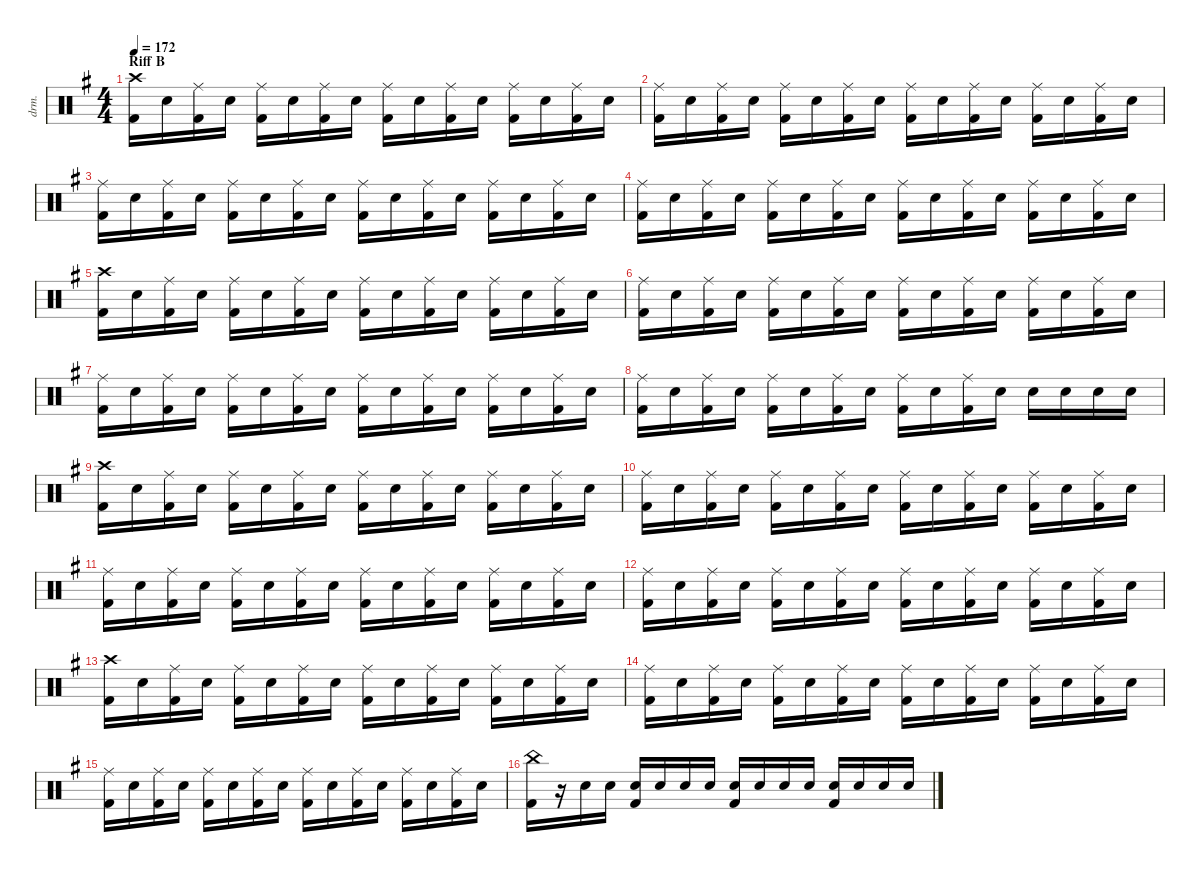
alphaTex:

\defaultSystemsLayout 4
\hideDynamics
\bracketExtendMode nobrackets
\otherSystemsTrackNameOrientation horizontal
\track ("Shinya" "drm.") {instrument percussion}
\staff {score}
\articulation defaults
\ts (4 4)
\section ("" "Riff B")
\tempo 172
\clef neutral
\ks eminor
("Kick (hit) 2"{acc forcenatural} "Crash high (hit)"{acc #}).16{dy fff} "Snare (hit) 2"{acc forcenatural}.16 ("Kick (hit) 2"{acc forcenatural} "Ride (middle)"{acc #}).16 "Snare (hit) 2"{acc forcenatural}.16 ("Kick (hit) 2"{acc forcenatural} "Ride (middle)"{acc #}).16 "Snare (hit) 2"{acc forcenatural}.16 ("Kick (hit) 2"{acc forcenatural} "Ride (middle)"{acc #}).16 "Snare (hit) 2"{acc forcenatural}.16 ("Kick (hit) 2"{acc forcenatural} "Ride (middle)"{acc #}).16 "Snare (hit) 2"{acc forcenatural}.16 ("Kick (hit) 2"{acc forcenatural} "Ride (middle)"{acc #}).16 "Snare (hit) 2"{acc forcenatural}.16 ("Kick (hit) 2"{acc forcenatural} "Ride (middle)"{acc #}).16 "Snare (hit) 2"{acc forcenatural}.16 ("Kick (hit) 2"{acc forcenatural} "Ride (middle)"{acc #}).16 "Snare (hit) 2"{acc forcenatural}.16 |
("Kick (hit) 2"{acc forcenatural} "Ride (middle)"{acc #}).16 "Snare (hit) 2"{acc forcenatural}.16 ("Kick (hit) 2"{acc forcenatural} "Ride (middle)"{acc #}).16 "Snare (hit) 2"{acc forcenatural}.16 ("Kick (hit) 2"{acc forcenatural} "Ride (middle)"{acc #}).16 "Snare (hit) 2"{acc forcenatural}.16 ("Kick (hit) 2"{acc forcenatural} "Ride (middle)"{acc #}).16 "Snare (hit) 2"{acc forcenatural}.16 ("Kick (hit) 2"{acc forcenatural} "Ride (middle)"{acc #}).16 "Snare (hit) 2"{acc forcenatural}.16 ("Kick (hit) 2"{acc forcenatural} "Ride (middle)"{acc #}).16 "Snare (hit) 2"{acc forcenatural}.16 ("Kick (hit) 2"{acc forcenatural} "Ride (middle)"{acc #}).16 "Snare (hit) 2"{acc forcenatural}.16 ("Kick (hit) 2"{acc forcenatural} "Ride (middle)"{acc #}).16 "Snare (hit) 2"{acc forcenatural}.16 |
("Kick (hit) 2"{acc forcenatural} "Ride (middle)"{acc #}).16 "Snare (hit) 2"{acc forcenatural}.16 ("Kick (hit) 2"{acc forcenatural} "Ride (middle)"{acc #}).16 "Snare (hit) 2"{acc forcenatural}.16 ("Kick (hit) 2"{acc forcenatural} "Ride (middle)"{acc #}).16 "Snare (hit) 2"{acc forcenatural}.16 ("Kick (hit) 2"{acc forcenatural} "Ride (middle)"{acc #}).16 "Snare (hit) 2"{acc forcenatural}.16 ("Kick (hit) 2"{acc forcenatural} "Ride (middle)"{acc #}).16 "Snare (hit) 2"{acc forcenatural}.16 ("Kick (hit) 2"{acc forcenatural} "Ride (middle)"{acc #}).16 "Snare (hit) 2"{acc forcenatural}.16 ("Kick (hit) 2"{acc forcenatural} "Ride (middle)"{acc #}).16 "Snare (hit) 2"{acc forcenatural}.16 ("Kick (hit) 2"{acc forcenatural} "Ride (middle)"{acc #}).16 "Snare (hit) 2"{acc forcenatural}.16 |
("Kick (hit) 2"{acc forcenatural} "Ride (middle)"{acc #}).16 "Snare (hit) 2"{acc forcenatural}.16 ("Kick (hit) 2"{acc forcenatural} "Ride (middle)"{acc #}).16 "Snare (hit) 2"{acc forcenatural}.16 ("Kick (hit) 2"{acc forcenatural} "Ride (middle)"{acc #}).16 "Snare (hit) 2"{acc forcenatural}.16 ("Kick (hit) 2"{acc forcenatural} "Ride (middle)"{acc #}).16 "Snare (hit) 2"{acc forcenatural}.16 ("Kick (hit) 2"{acc forcenatural} "Ride (middle)"{acc #}).16 "Snare (hit) 2"{acc forcenatural}.16 ("Kick (hit) 2"{acc forcenatural} "Ride (middle)"{acc #}).16 "Snare (hit) 2"{acc forcenatural}.16 ("Kick (hit) 2"{acc forcenatural} "Ride (middle)"{acc #}).16 "Snare (hit) 2"{acc forcenatural}.16 ("Kick (hit) 2"{acc forcenatural} "Ride (middle)"{acc #}).16 "Snare (hit) 2"{acc forcenatural}.16 |
("Kick (hit) 2"{acc forcenatural} "Crash high (hit)"{acc #}).16 "Snare (hit) 2"{acc forcenatural}.16 ("Kick (hit) 2"{acc forcenatural} "Ride (middle)"{acc #}).16 "Snare (hit) 2"{acc forcenatural}.16 ("Kick (hit) 2"{acc forcenatural} "Ride (middle)"{acc #}).16 "Snare (hit) 2"{acc forcenatural}.16 ("Kick (hit) 2"{acc forcenatural} "Ride (middle)"{acc #}).16 "Snare (hit) 2"{acc forcenatural}.16 ("Kick (hit) 2"{acc forcenatural} "Ride (middle)"{acc #}).16 "Snare (hit) 2"{acc forcenatural}.16 ("Kick (hit) 2"{acc forcenatural} "Ride (middle)"{acc #}).16 "Snare (hit) 2"{acc forcenatural}.16 ("Kick (hit) 2"{acc forcenatural} "Ride (middle)"{acc #}).16 "Snare (hit) 2"{acc forcenatural}.16 ("Kick (hit) 2"{acc forcenatural} "Ride (middle)"{acc #}).16 "Snare (hit) 2"{acc forcenatural}.16 |
("Kick (hit) 2"{acc forcenatural} "Ride (middle)"{acc #}).16 "Snare (hit) 2"{acc forcenatural}.16 ("Kick (hit) 2"{acc forcenatural} "Ride (middle)"{acc #}).16 "Snare (hit) 2"{acc forcenatural}.16 ("Kick (hit) 2"{acc forcenatural} "Ride (middle)"{acc #}).16 "Snare (hit) 2"{acc forcenatural}.16 ("Kick (hit) 2"{acc forcenatural} "Ride (middle)"{acc #}).16 "Snare (hit) 2"{acc forcenatural}.16 ("Kick (hit) 2"{acc forcenatural} "Ride (middle)"{acc #}).16 "Snare (hit) 2"{acc forcenatural}.16 ("Kick (hit) 2"{acc forcenatural} "Ride (middle)"{acc #}).16 "Snare (hit) 2"{acc forcenatural}.16 ("Kick (hit) 2"{acc forcenatural} "Ride (middle)"{acc #}).16 "Snare (hit) 2"{acc forcenatural}.16 ("Kick (hit) 2"{acc forcenatural} "Ride (middle)"{acc #}).16 "Snare (hit) 2"{acc forcenatural}.16 |
("Kick (hit) 2"{acc forcenatural} "Ride (middle)"{acc #}).16 "Snare (hit) 2"{acc forcenatural}.16 ("Kick (hit) 2"{acc forcenatural} "Ride (middle)"{acc #}).16 "Snare (hit) 2"{acc forcenatural}.16 ("Kick (hit) 2"{acc forcenatural} "Ride (middle)"{acc #}).16 "Snare (hit) 2"{acc forcenatural}.16 ("Kick (hit) 2"{acc forcenatural} "Ride (middle)"{acc #}).16 "Snare (hit) 2"{acc forcenatural}.16 ("Kick (hit) 2"{acc forcenatural} "Ride (middle)"{acc #}).16 "Snare (hit) 2"{acc forcenatural}.16 ("Kick (hit) 2"{acc forcenatural} "Ride (middle)"{acc #}).16 "Snare (hit) 2"{acc forcenatural}.16 ("Kick (hit) 2"{acc forcenatural} "Ride (middle)"{acc #}).16 "Snare (hit) 2"{acc forcenatural}.16 ("Kick (hit) 2"{acc forcenatural} "Ride (middle)"{acc #}).16 "Snare (hit) 2"{acc forcenatural}.16 |
("Kick (hit) 2"{acc forcenatural} "Ride (middle)"{acc #}).16 "Snare (hit) 2"{acc forcenatural}.16 ("Kick (hit) 2"{acc forcenatural} "Ride (middle)"{acc #}).16 "Snare (hit) 2"{acc forcenatural}.16 ("Kick (hit) 2"{acc forcenatural} "Ride (middle)"{acc #}).16 "Snare (hit) 2"{acc forcenatural}.16 ("Kick (hit) 2"{acc forcenatural} "Ride (middle)"{acc #}).16 "Snare (hit) 2"{acc forcenatural}.16 ("Kick (hit) 2"{acc forcenatural} "Ride (middle)"{acc #}).16 "Snare (hit) 2"{acc forcenatural}.16 ("Kick (hit) 2"{acc forcenatural} "Ride (middle)"{acc #}).16 "Snare (hit) 2"{acc forcenatural}.16 "Snare (hit) 2"{acc forcenatural}.16 "Snare (hit) 2"{acc forcenatural}.16 "Snare (hit) 2"{acc forcenatural}.16 "Snare (hit) 2"{acc forcenatural}.16 |
("Kick (hit) 2"{acc forcenatural} "Crash high (hit)"{acc #}).16 "Snare (hit) 2"{acc forcenatural}.16 ("Kick (hit) 2"{acc forcenatural} "Ride (middle)"{acc #}).16 "Snare (hit) 2"{acc forcenatural}.16 ("Kick (hit) 2"{acc forcenatural} "Ride (middle)"{acc #}).16 "Snare (hit) 2"{acc forcenatural}.16 ("Kick (hit) 2"{acc forcenatural} "Ride (middle)"{acc #}).16 "Snare (hit) 2"{acc forcenatural}.16 ("Kick (hit) 2"{acc forcenatural} "Ride (middle)"{acc #}).16 "Snare (hit) 2"{acc forcenatural}.16 ("Kick (hit) 2"{acc forcenatural} "Ride (middle)"{acc #}).16 "Snare (hit) 2"{acc forcenatural}.16 ("Kick (hit) 2"{acc forcenatural} "Ride (middle)"{acc #}).16 "Snare (hit) 2"{acc forcenatural}.16 ("Kick (hit) 2"{acc forcenatural} "Ride (middle)"{acc #}).16 "Snare (hit) 2"{acc forcenatural}.16 |
("Kick (hit) 2"{acc forcenatural} "Ride (middle)"{acc #}).16 "Snare (hit) 2"{acc forcenatural}.16 ("Kick (hit) 2"{acc forcenatural} "Ride (middle)"{acc #}).16 "Snare (hit) 2"{acc forcenatural}.16 ("Kick (hit) 2"{acc forcenatural} "Ride (middle)"{acc #}).16 "Snare (hit) 2"{acc forcenatural}.16 ("Kick (hit) 2"{acc forcenatural} "Ride (middle)"{acc #}).16 "Snare (hit) 2"{acc forcenatural}.16 ("Kick (hit) 2"{acc forcenatural} "Ride (middle)"{acc #}).16 "Snare (hit) 2"{acc forcenatural}.16 ("Kick (hit) 2"{acc forcenatural} "Ride (middle)"{acc #}).16 "Snare (hit) 2"{acc forcenatural}.16 ("Kick (hit) 2"{acc forcenatural} "Ride (middle)"{acc #}).16 "Snare (hit) 2"{acc forcenatural}.16 ("Kick (hit) 2"{acc forcenatural} "Ride (middle)"{acc #}).16 "Snare (hit) 2"{acc forcenatural}.16 |
("Kick (hit) 2"{acc forcenatural} "Ride (middle)"{acc #}).16 "Snare (hit) 2"{acc forcenatural}.16 ("Kick (hit) 2"{acc forcenatural} "Ride (middle)"{acc #}).16 "Snare (hit) 2"{acc forcenatural}.16 ("Kick (hit) 2"{acc forcenatural} "Ride (middle)"{acc #}).16 "Snare (hit) 2"{acc forcenatural}.16 ("Kick (hit) 2"{acc forcenatural} "Ride (middle)"{acc #}).16 "Snare (hit) 2"{acc forcenatural}.16 ("Kick (hit) 2"{acc forcenatural} "Ride (middle)"{acc #}).16 "Snare (hit) 2"{acc forcenatural}.16 ("Kick (hit) 2"{acc forcenatural} "Ride (middle)"{acc #}).16 "Snare (hit) 2"{acc forcenatural}.16 ("Kick (hit) 2"{acc forcenatural} "Ride (middle)"{acc #}).16 "Snare (hit) 2"{acc forcenatural}.16 ("Kick (hit) 2"{acc forcenatural} "Ride (middle)"{acc #}).16 "Snare (hit) 2"{acc forcenatural}.16 |
("Kick (hit) 2"{acc forcenatural} "Ride (middle)"{acc #}).16 "Snare (hit) 2"{acc forcenatural}.16 ("Kick (hit) 2"{acc forcenatural} "Ride (middle)"{acc #}).16 "Snare (hit) 2"{acc forcenatural}.16 ("Kick (hit) 2"{acc forcenatural} "Ride (middle)"{acc #}).16 "Snare (hit) 2"{acc forcenatural}.16 ("Kick (hit) 2"{acc forcenatural} "Ride (middle)"{acc #}).16 "Snare (hit) 2"{acc forcenatural}.16 ("Kick (hit) 2"{acc forcenatural} "Ride (middle)"{acc #}).16 "Snare (hit) 2"{acc forcenatural}.16 ("Kick (hit) 2"{acc forcenatural} "Ride (middle)"{acc #}).16 "Snare (hit) 2"{acc forcenatural}.16 ("Kick (hit) 2"{acc forcenatural} "Ride (middle)"{acc #}).16 "Snare (hit) 2"{acc forcenatural}.16 ("Kick (hit) 2"{acc forcenatural} "Ride (middle)"{acc #}).16 "Snare (hit) 2"{acc forcenatural}.16 |
("Kick (hit) 2"{acc forcenatural} "Crash high (hit)"{acc #}).16 "Snare (hit) 2"{acc forcenatural}.16 ("Kick (hit) 2"{acc forcenatural} "Ride (middle)"{acc #}).16 "Snare (hit) 2"{acc forcenatural}.16 ("Kick (hit) 2"{acc forcenatural} "Ride (middle)"{acc #}).16 "Snare (hit) 2"{acc forcenatural}.16 ("Kick (hit) 2"{acc forcenatural} "Ride (middle)"{acc #}).16 "Snare (hit) 2"{acc forcenatural}.16 ("Kick (hit) 2"{acc forcenatural} "Ride (middle)"{acc #}).16 "Snare (hit) 2"{acc forcenatural}.16 ("Kick (hit) 2"{acc forcenatural} "Ride (middle)"{acc #}).16 "Snare (hit) 2"{acc forcenatural}.16 ("Kick (hit) 2"{acc forcenatural} "Ride (middle)"{acc #}).16 "Snare (hit) 2"{acc forcenatural}.16 ("Kick (hit) 2"{acc forcenatural} "Ride (middle)"{acc #}).16 "Snare (hit) 2"{acc forcenatural}.16 |
("Kick (hit) 2"{acc forcenatural} "Ride (middle)"{acc #}).16 "Snare (hit) 2"{acc forcenatural}.16 ("Kick (hit) 2"{acc forcenatural} "Ride (middle)"{acc #}).16 "Snare (hit) 2"{acc forcenatural}.16 ("Kick (hit) 2"{acc forcenatural} "Ride (middle)"{acc #}).16 "Snare (hit) 2"{acc forcenatural}.16 ("Kick (hit) 2"{acc forcenatural} "Ride (middle)"{acc #}).16 "Snare (hit) 2"{acc forcenatural}.16 ("Kick (hit) 2"{acc forcenatural} "Ride (middle)"{acc #}).16 "Snare (hit) 2"{acc forcenatural}.16 ("Kick (hit) 2"{acc forcenatural} "Ride (middle)"{acc #}).16 "Snare (hit) 2"{acc forcenatural}.16 ("Kick (hit) 2"{acc forcenatural} "Ride (middle)"{acc #}).16 "Snare (hit) 2"{acc forcenatural}.16 ("Kick (hit) 2"{acc forcenatural} "Ride (middle)"{acc #}).16 "Snare (hit) 2"{acc forcenatural}.16 |
("Kick (hit) 2"{acc forcenatural} "Ride (middle)"{acc #}).16 "Snare (hit) 2"{acc forcenatural}.16 ("Kick (hit) 2"{acc forcenatural} "Ride (middle)"{acc #}).16 "Snare (hit) 2"{acc forcenatural}.16 ("Kick (hit) 2"{acc forcenatural} "Ride (middle)"{acc #}).16 "Snare (hit) 2"{acc forcenatural}.16 ("Kick (hit) 2"{acc forcenatural} "Ride (middle)"{acc #}).16 "Snare (hit) 2"{acc forcenatural}.16 ("Kick (hit) 2"{acc forcenatural} "Ride (middle)"{acc #}).16 "Snare (hit) 2"{acc forcenatural}.16 ("Kick (hit) 2"{acc forcenatural} "Ride (middle)"{acc #}).16 "Snare (hit) 2"{acc forcenatural}.16 ("Kick (hit) 2"{acc forcenatural} "Ride (middle)"{acc #}).16 "Snare (hit) 2"{acc forcenatural}.16 ("Kick (hit) 2"{acc forcenatural} "Ride (middle)"{acc #}).16 "Snare (hit) 2"{acc forcenatural}.16 |
("Kick (hit) 2"{acc forcenatural} "China (hit)"{acc forcenatural}).16 r.16 "Snare (hit) 2"{acc forcenatural}.16 "Snare (hit) 2"{acc forcenatural}.16 ("Kick (hit) 2"{acc forcenatural} "Snare (hit) 2"{acc forcenatural}).16 "Snare (hit) 2"{acc forcenatural}.16 "Snare (hit) 2"{acc forcenatural}.16 "Snare (hit) 2"{acc forcenatural}.16 ("Kick (hit) 2"{acc forcenatural} "Snare (hit) 2"{acc forcenatural}).16 "Snare (hit) 2"{acc forcenatural}.16 "Snare (hit) 2"{acc forcenatural}.16 "Snare (hit) 2"{acc forcenatural}.16 ("Kick (hit) 2"{acc forcenatural} "Snare (hit) 2"{acc forcenatural}).16 "Snare (hit) 2"{acc forcenatural}.16 "Snare (hit) 2"{acc forcenatural}.16 "Snare (hit) 2"{acc forcenatural}.16
